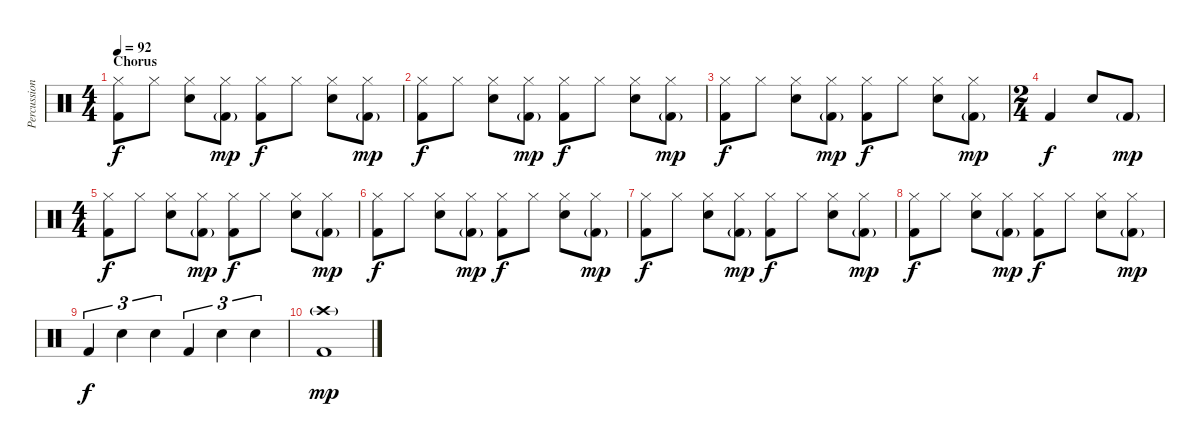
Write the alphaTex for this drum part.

\track ("Percussion" "Percussion") {instrument percussion}
\staff {score}
\articulation defaults
\ts (4 4)
\section ("" "Chorus")
\tempo 92
\clef neutral
\ks c
("Hi-Hat (closed)" "Kick (hit) 2").8{dy f} "Hi-Hat (closed)".8 ("Hi-Hat (closed)" "Snare (hit) 2").8 ("Hi-Hat (closed)" "Kick (hit) 2"{g}).8{dy mp} ("Hi-Hat (closed)" "Kick (hit) 2").8{dy f} "Hi-Hat (closed)".8 ("Hi-Hat (closed)" "Snare (hit) 2").8 ("Hi-Hat (closed)" "Kick (hit) 2"{g}).8{dy mp} |
("Hi-Hat (closed)" "Kick (hit) 2").8{dy f} "Hi-Hat (closed)".8 ("Hi-Hat (closed)" "Snare (hit) 2").8 ("Hi-Hat (closed)" "Kick (hit) 2"{g}).8{dy mp} ("Hi-Hat (closed)" "Kick (hit) 2").8{dy f} "Hi-Hat (closed)".8 ("Hi-Hat (closed)" "Snare (hit) 2").8 ("Hi-Hat (closed)" "Kick (hit) 2"{g}).8{dy mp} |
("Hi-Hat (closed)" "Kick (hit) 2").8{dy f} "Hi-Hat (closed)".8 ("Hi-Hat (closed)" "Snare (hit) 2").8 ("Hi-Hat (closed)" "Kick (hit) 2"{g}).8{dy mp} ("Hi-Hat (closed)" "Kick (hit) 2").8{dy f} "Hi-Hat (closed)".8 ("Hi-Hat (closed)" "Snare (hit) 2").8 ("Hi-Hat (closed)" "Kick (hit) 2"{g}).8{dy mp} |
\ts (2 4)
"Kick (hit) 2".4{dy f} "Snare (hit) 2".8 "Kick (hit) 2"{g}.8{dy mp} |
\ts (4 4)
("Hi-Hat (closed)" "Kick (hit) 2").8{dy f} "Hi-Hat (closed)".8 ("Hi-Hat (closed)" "Snare (hit) 2").8 ("Hi-Hat (closed)" "Kick (hit) 2"{g}).8{dy mp} ("Hi-Hat (closed)" "Kick (hit) 2").8{dy f} "Hi-Hat (closed)".8 ("Hi-Hat (closed)" "Snare (hit) 2").8 ("Hi-Hat (closed)" "Kick (hit) 2"{g}).8{dy mp} |
("Hi-Hat (closed)" "Kick (hit) 2").8{dy f} "Hi-Hat (closed)".8 ("Hi-Hat (closed)" "Snare (hit) 2").8 ("Hi-Hat (closed)" "Kick (hit) 2"{g}).8{dy mp} ("Hi-Hat (closed)" "Kick (hit) 2").8{dy f} "Hi-Hat (closed)".8 ("Hi-Hat (closed)" "Snare (hit) 2").8 ("Hi-Hat (closed)" "Kick (hit) 2"{g}).8{dy mp} |
("Hi-Hat (closed)" "Kick (hit) 2").8{dy f} "Hi-Hat (closed)".8 ("Hi-Hat (closed)" "Snare (hit) 2").8 ("Hi-Hat (closed)" "Kick (hit) 2"{g}).8{dy mp} ("Hi-Hat (closed)" "Kick (hit) 2").8{dy f} "Hi-Hat (closed)".8 ("Hi-Hat (closed)" "Snare (hit) 2").8 ("Hi-Hat (closed)" "Kick (hit) 2"{g}).8{dy mp} |
("Hi-Hat (closed)" "Kick (hit) 2").8{dy f} "Hi-Hat (closed)".8 ("Hi-Hat (closed)" "Snare (hit) 2").8 ("Hi-Hat (closed)" "Kick (hit) 2"{g}).8{dy mp} ("Hi-Hat (closed)" "Kick (hit) 2").8{dy f} "Hi-Hat (closed)".8 ("Hi-Hat (closed)" "Snare (hit) 2").8 ("Hi-Hat (closed)" "Kick (hit) 2"{g}).8{dy mp} |
"Kick (hit) 2".4{tu (3 2) dy f} "Snare (hit) 2".4{tu (3 2)} "Snare (hit) 2".4{tu (3 2)} "Kick (hit) 2".4{tu (3 2)} "Snare (hit) 2".4{tu (3 2)} "Snare (hit) 2".4{tu (3 2)} |
("Crash high (hit)"{g} "Kick (hit) 2").1{dy mp}
